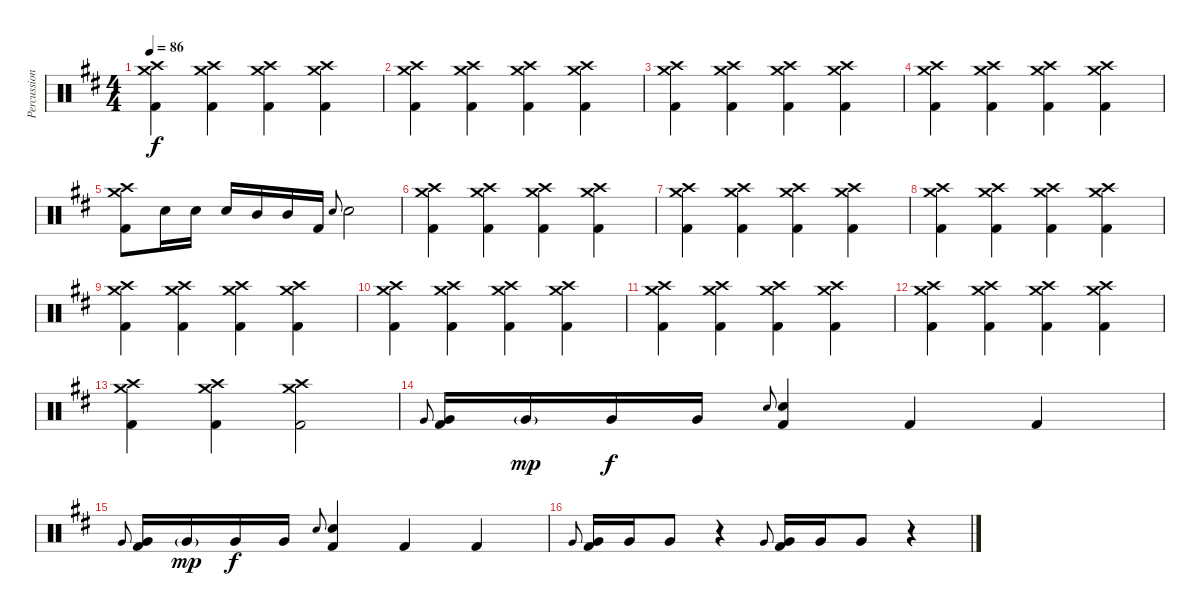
\track ("Percussion" "Percussion") {instrument percussion}
\staff {score}
\articulation defaults
\ts (4 4)
\tempo 86
\clef neutral
\ks d
("Crash medium (hit)" "Crash high (hit)" "Kick (hit) 2").4{dy f} ("Crash medium (hit)" "Crash high (hit)" "Kick (hit) 2").4 ("Crash medium (hit)" "Crash high (hit)" "Kick (hit) 2").4 ("Crash medium (hit)" "Crash high (hit)" "Kick (hit) 2").4 |
("Crash medium (hit)" "Crash high (hit)" "Kick (hit) 2").4 ("Crash medium (hit)" "Crash high (hit)" "Kick (hit) 2").4 ("Crash medium (hit)" "Crash high (hit)" "Kick (hit) 2").4 ("Crash medium (hit)" "Crash high (hit)" "Kick (hit) 2").4 |
("Crash medium (hit)" "Crash high (hit)" "Kick (hit) 2").4 ("Crash medium (hit)" "Crash high (hit)" "Kick (hit) 2").4 ("Crash medium (hit)" "Crash high (hit)" "Kick (hit) 2").4 ("Crash medium (hit)" "Crash high (hit)" "Kick (hit) 2").4 |
("Crash medium (hit)" "Crash high (hit)" "Kick (hit) 2").4 ("Crash medium (hit)" "Crash high (hit)" "Kick (hit) 2").4 ("Crash medium (hit)" "Crash high (hit)" "Kick (hit) 2").4 ("Crash medium (hit)" "Crash high (hit)" "Kick (hit) 2").4 |
("Crash medium (hit)" "Crash high (hit)" "Kick (hit) 2").8 "Electric Snare (hit)".16 "Electric Snare (hit)".16 "Electric Snare (hit)".16 "Mid Tom (hit)".16 "Mid Tom (hit)".16 "Kick (hit) 2".16 "Electric Snare (hit)".8{gr onbeat} "Electric Snare (hit)".2 |
("Crash medium (hit)" "Crash high (hit)" "Kick (hit) 2").4 ("Crash medium (hit)" "Crash high (hit)" "Kick (hit) 2").4 ("Crash medium (hit)" "Crash high (hit)" "Kick (hit) 2").4 ("Crash medium (hit)" "Crash high (hit)" "Kick (hit) 2").4 |
("Crash medium (hit)" "Crash high (hit)" "Kick (hit) 2").4 ("Crash medium (hit)" "Crash high (hit)" "Kick (hit) 2").4 ("Crash medium (hit)" "Crash high (hit)" "Kick (hit) 2").4 ("Crash medium (hit)" "Crash high (hit)" "Kick (hit) 2").4 |
("Crash medium (hit)" "Crash high (hit)" "Kick (hit) 2").4 ("Crash medium (hit)" "Crash high (hit)" "Kick (hit) 2").4 ("Crash medium (hit)" "Crash high (hit)" "Kick (hit) 2").4 ("Crash medium (hit)" "Crash high (hit)" "Kick (hit) 2").4 |
("Crash medium (hit)" "Crash high (hit)" "Kick (hit) 2").4 ("Crash medium (hit)" "Crash high (hit)" "Kick (hit) 2").4 ("Crash medium (hit)" "Crash high (hit)" "Kick (hit) 2").4 ("Crash medium (hit)" "Crash high (hit)" "Kick (hit) 2").4 |
("Crash medium (hit)" "Crash high (hit)" "Kick (hit) 2").4 ("Crash medium (hit)" "Crash high (hit)" "Kick (hit) 2").4 ("Crash medium (hit)" "Crash high (hit)" "Kick (hit) 2").4 ("Crash medium (hit)" "Crash high (hit)" "Kick (hit) 2").4 |
("Crash medium (hit)" "Crash high (hit)" "Kick (hit) 2").4 ("Crash medium (hit)" "Crash high (hit)" "Kick (hit) 2").4 ("Crash medium (hit)" "Crash high (hit)" "Kick (hit) 2").4 ("Crash medium (hit)" "Crash high (hit)" "Kick (hit) 2").4 |
("Crash medium (hit)" "Crash high (hit)" "Kick (hit) 2").4 ("Crash medium (hit)" "Crash high (hit)" "Kick (hit) 2").4 ("Crash medium (hit)" "Crash high (hit)" "Kick (hit) 2").4 ("Crash medium (hit)" "Crash high (hit)" "Kick (hit) 2").4 |
("Crash medium (hit)" "Crash high (hit)" "Kick (hit) 2").4 ("Crash medium (hit)" "Crash high (hit)" "Kick (hit) 2").4 ("Crash medium (hit)" "Crash high (hit)" "Kick (hit) 2").2 |
"Very Low Tom (hit)".8{gr onbeat} ("Very Low Tom (hit)" "Kick (hit) 2").16 "Very Low Tom (hit)"{g}.16{dy mp} "Very Low Tom (hit)".16{dy f} "Very Low Tom (hit)".16 "Electric Snare (hit)".8{gr onbeat} ("Electric Snare (hit)" "Kick (hit) 2").4 "Kick (hit) 2".4 "Kick (hit) 2".4 |
"Very Low Tom (hit)".8{gr onbeat} ("Very Low Tom (hit)" "Kick (hit) 2").16 "Very Low Tom (hit)"{g}.16{dy mp} "Very Low Tom (hit)".16{dy f} "Very Low Tom (hit)".16 "Electric Snare (hit)".8{gr onbeat} ("Electric Snare (hit)" "Kick (hit) 2").4 "Kick (hit) 2".4 "Kick (hit) 2".4 |
"Very Low Tom (hit)".8{gr onbeat} ("Very Low Tom (hit)" "Kick (hit) 2").16 "Very Low Tom (hit)".16 "Very Low Tom (hit)".8 r.4 "Very Low Tom (hit)".8{gr onbeat} ("Very Low Tom (hit)" "Kick (hit) 2").16 "Very Low Tom (hit)".16 "Very Low Tom (hit)".8 r.4
